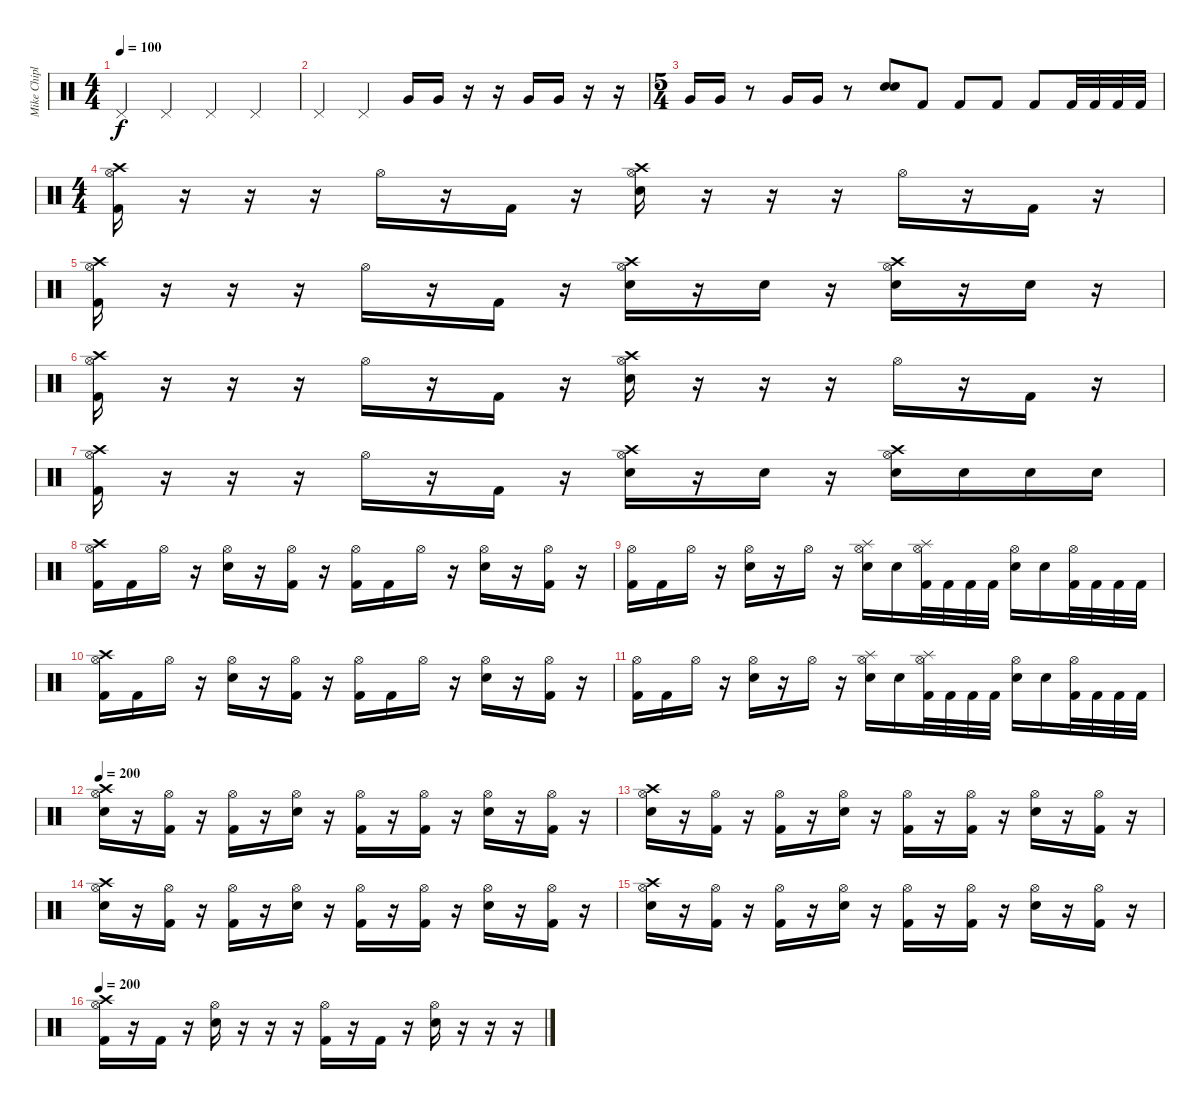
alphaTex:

\track ("Mike Chiplin" "Mike Chipl") {instrument percussion}
\staff {score}
\articulation defaults
\ts (4 4)
\tempo 100
\clef neutral
\ks c "Pedal Hi-Hat (hit)".4{dy f} "Pedal Hi-Hat (hit)".4 "Pedal Hi-Hat (hit)".4 "Pedal Hi-Hat (hit)".4
|
"Pedal Hi-Hat (hit)".4 "Pedal Hi-Hat (hit)".4 "Very Low Tom (hit)".16 "Very Low Tom (hit)".16 r.16 r.16 "Very Low Tom (hit)".16 "Very Low Tom (hit)".16 r.16 r.16 |
\ts (5 4)
"Very Low Tom (hit)".16 "Very Low Tom (hit)".16 r.8 "Very Low Tom (hit)".16 "Very Low Tom (hit)".16 r.8 ("Electric Snare (hit)" "Electric Snare (hit)").8{bd 480} "Kick (hit) 2".8 "Kick (hit) 2".8 "Kick (hit) 2".8 "Kick (hit) 2".8 "Kick (hit) 2".32 "Kick (hit) 2".32 "Kick (hit) 2".32 "Kick (hit) 2".32 |
\ts (4 4)
("Hi-Hat (open)" "Kick (hit) 2" "Crash high (hit)").16 r.16 r.16 r.16 "Hi-Hat (open)".16 r.16 "Kick (hit) 2".16 r.16 ("Hi-Hat (open)" "Electric Snare (hit)" "Crash high (hit)").16 r.16 r.16 r.16 "Hi-Hat (open)".16 r.16 "Kick (hit) 2".16 r.16 |
("Hi-Hat (open)" "Kick (hit) 2" "Crash high (hit)").16 r.16 r.16 r.16 "Hi-Hat (open)".16 r.16 "Kick (hit) 2".16 r.16 ("Hi-Hat (open)" "Electric Snare (hit)" "Crash high (hit)").16 r.16 "Electric Snare (hit)".16 r.16 ("Hi-Hat (open)" "Electric Snare (hit)" "Crash high (hit)").16 r.16 "Electric Snare (hit)".16 r.16 |
("Hi-Hat (open)" "Kick (hit) 2" "Crash high (hit)").16 r.16 r.16 r.16 "Hi-Hat (open)".16 r.16 "Kick (hit) 2".16 r.16 ("Hi-Hat (open)" "Electric Snare (hit)" "Crash high (hit)").16 r.16 r.16 r.16 "Hi-Hat (open)".16 r.16 "Kick (hit) 2".16 r.16 |
("Hi-Hat (open)" "Kick (hit) 2" "Crash high (hit)").16 r.16 r.16 r.16 "Hi-Hat (open)".16 r.16 "Kick (hit) 2".16 r.16 ("Hi-Hat (open)" "Electric Snare (hit)" "Crash high (hit)").16 r.16 "Electric Snare (hit)".16 r.16 ("Hi-Hat (open)" "Electric Snare (hit)" "Crash high (hit)").16 "Electric Snare (hit)".16 "Electric Snare (hit)".16 "Electric Snare (hit)".16 |
("Hi-Hat (open)" "Kick (hit) 2" "Crash high (hit)").16 "Kick (hit) 2".16 "Hi-Hat (open)".16 r.16 ("Hi-Hat (open)" "Electric Snare (hit)").16 r.16 ("Hi-Hat (open)" "Kick (hit) 2").16 r.16 ("Hi-Hat (open)" "Kick (hit) 2").16 "Kick (hit) 2".16 "Hi-Hat (open)".16 r.16 ("Hi-Hat (open)" "Electric Snare (hit)").16 r.16 ("Hi-Hat (open)" "Kick (hit) 2").16 r.16 |
("Hi-Hat (open)" "Kick (hit) 2").16 "Kick (hit) 2".16 "Hi-Hat (open)".16 r.16 ("Hi-Hat (open)" "Electric Snare (hit)").16 r.16 "Hi-Hat (open)".16 r.16 ("Hi-Hat (open)" "Electric Snare (hit)" "Splash (hit)").16 "Electric Snare (hit)".16 ("Hi-Hat (open)" "Kick (hit) 2" "Splash (hit)").32 "Kick (hit) 2".32 "Kick (hit) 2".32 "Kick (hit) 2".32 ("Hi-Hat (open)" "Electric Snare (hit)").16 "Electric Snare (hit)".16 ("Kick (hit) 2" "Hi-Hat (open)").32 "Kick (hit) 2".32 "Kick (hit) 2".32 "Kick (hit) 2".32 |
("Hi-Hat (open)" "Kick (hit) 2" "Crash high (hit)").16 "Kick (hit) 2".16 "Hi-Hat (open)".16 r.16 ("Hi-Hat (open)" "Electric Snare (hit)").16 r.16 ("Hi-Hat (open)" "Kick (hit) 2").16 r.16 ("Hi-Hat (open)" "Kick (hit) 2").16 "Kick (hit) 2".16 "Hi-Hat (open)".16 r.16 ("Hi-Hat (open)" "Electric Snare (hit)").16 r.16 ("Hi-Hat (open)" "Kick (hit) 2").16 r.16 |
("Hi-Hat (open)" "Kick (hit) 2").16 "Kick (hit) 2".16 "Hi-Hat (open)".16 r.16 ("Hi-Hat (open)" "Electric Snare (hit)").16 r.16 "Hi-Hat (open)".16 r.16 ("Hi-Hat (open)" "Electric Snare (hit)" "Splash (hit)").16 "Electric Snare (hit)".16 ("Hi-Hat (open)" "Kick (hit) 2" "Splash (hit)").32 "Kick (hit) 2".32 "Kick (hit) 2".32 "Kick (hit) 2".32 ("Hi-Hat (open)" "Electric Snare (hit)").16 "Electric Snare (hit)".16 ("Kick (hit) 2" "Hi-Hat (open)").32 "Kick (hit) 2".32 "Kick (hit) 2".32 "Kick (hit) 2".32 |
\tempo 200
("Hi-Hat (open)" "Electric Snare (hit)" "Crash high (hit)").16 r.16 ("Hi-Hat (open)" "Kick (hit) 2").16 r.16 ("Hi-Hat (open)" "Kick (hit) 2").16 r.16 ("Hi-Hat (open)" "Electric Snare (hit)").16 r.16 ("Hi-Hat (open)" "Kick (hit) 2").16 r.16 ("Hi-Hat (open)" "Kick (hit) 2").16 r.16 ("Hi-Hat (open)" "Electric Snare (hit)").16 r.16 ("Hi-Hat (open)" "Kick (hit) 2").16 r.16 |
("Hi-Hat (open)" "Electric Snare (hit)" "Crash high (hit)").16 r.16 ("Hi-Hat (open)" "Kick (hit) 2").16 r.16 ("Hi-Hat (open)" "Kick (hit) 2").16 r.16 ("Hi-Hat (open)" "Electric Snare (hit)").16 r.16 ("Hi-Hat (open)" "Kick (hit) 2").16 r.16 ("Hi-Hat (open)" "Kick (hit) 2").16 r.16 ("Hi-Hat (open)" "Electric Snare (hit)").16 r.16 ("Hi-Hat (open)" "Kick (hit) 2").16 r.16 |
("Hi-Hat (open)" "Electric Snare (hit)" "Crash high (hit)").16 r.16 ("Hi-Hat (open)" "Kick (hit) 2").16 r.16 ("Hi-Hat (open)" "Kick (hit) 2").16 r.16 ("Hi-Hat (open)" "Electric Snare (hit)").16 r.16 ("Hi-Hat (open)" "Kick (hit) 2").16 r.16 ("Hi-Hat (open)" "Kick (hit) 2").16 r.16 ("Hi-Hat (open)" "Electric Snare (hit)").16 r.16 ("Hi-Hat (open)" "Kick (hit) 2").16 r.16 |
("Hi-Hat (open)" "Electric Snare (hit)" "Crash high (hit)").16 r.16 ("Hi-Hat (open)" "Kick (hit) 2").16 r.16 ("Hi-Hat (open)" "Kick (hit) 2").16 r.16 ("Hi-Hat (open)" "Electric Snare (hit)").16 r.16 ("Hi-Hat (open)" "Kick (hit) 2").16 r.16 ("Hi-Hat (open)" "Kick (hit) 2").16 r.16 ("Hi-Hat (open)" "Electric Snare (hit)").16 r.16 ("Hi-Hat (open)" "Kick (hit) 2").16 r.16 |
\tempo 200
("Hi-Hat (open)" "Kick (hit) 2" "Crash high (hit)").16 r.16 "Kick (hit) 2".16 r.16 ("Hi-Hat (open)" "Electric Snare (hit)").16 r.16 r.16 r.16 ("Hi-Hat (open)" "Kick (hit) 2").16 r.16 "Kick (hit) 2".16 r.16 ("Hi-Hat (open)" "Electric Snare (hit)").16 r.16 r.16 r.16
